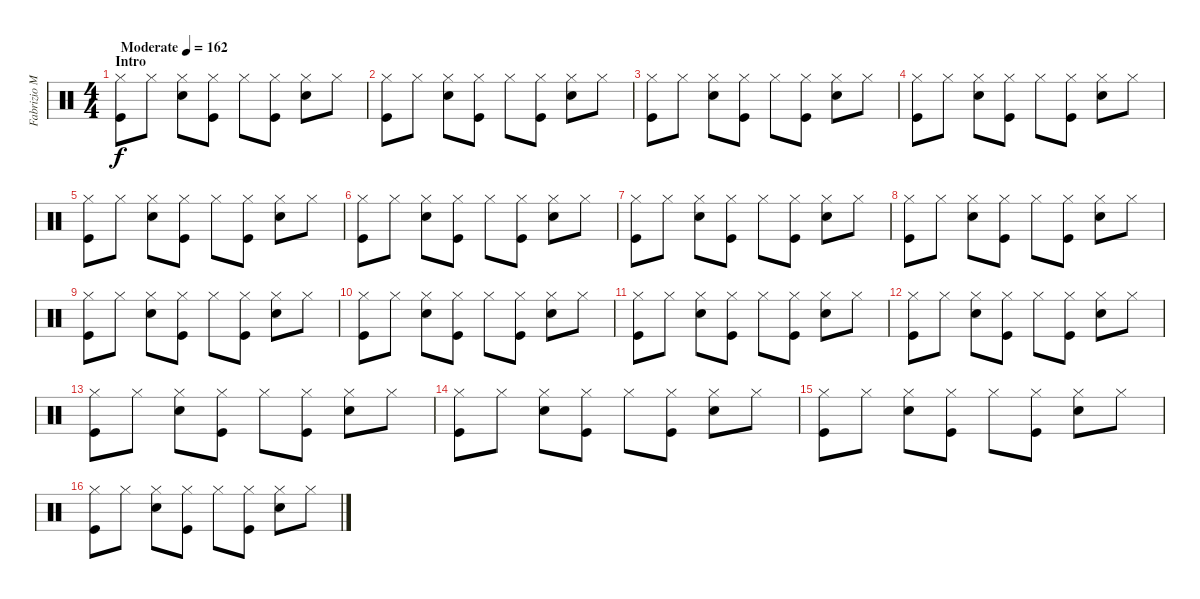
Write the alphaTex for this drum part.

\track ("Fabrizio Moretti" "Fabrizio M") {instrument percussion}
\staff {score}
\articulation defaults
\ts (4 4)
\section ("" "Intro")
\tempo (162 "Moderate")
\clef neutral
\ks c
("Hi-Hat (closed)" "Kick (hit)").8{dy f} "Hi-Hat (closed)".8 ("Hi-Hat (closed)" "Snare (hit) 2").8 ("Hi-Hat (closed)" "Kick (hit)").8 "Hi-Hat (closed)".8 ("Hi-Hat (closed)" "Kick (hit)").8 ("Hi-Hat (closed)" "Snare (hit) 2").8 "Hi-Hat (closed)".8 |
("Hi-Hat (closed)" "Kick (hit)").8 "Hi-Hat (closed)".8 ("Hi-Hat (closed)" "Snare (hit) 2").8 ("Hi-Hat (closed)" "Kick (hit)").8 "Hi-Hat (closed)".8 ("Hi-Hat (closed)" "Kick (hit)").8 ("Hi-Hat (closed)" "Snare (hit) 2").8 "Hi-Hat (closed)".8 |
("Hi-Hat (closed)" "Kick (hit)").8 "Hi-Hat (closed)".8 ("Hi-Hat (closed)" "Snare (hit) 2").8 ("Hi-Hat (closed)" "Kick (hit)").8 "Hi-Hat (closed)".8 ("Hi-Hat (closed)" "Kick (hit)").8 ("Hi-Hat (closed)" "Snare (hit) 2").8 "Hi-Hat (closed)".8 |
("Hi-Hat (closed)" "Kick (hit)").8 "Hi-Hat (closed)".8 ("Hi-Hat (closed)" "Snare (hit) 2").8 ("Hi-Hat (closed)" "Kick (hit)").8 "Hi-Hat (closed)".8 ("Hi-Hat (closed)" "Kick (hit)").8 ("Hi-Hat (closed)" "Snare (hit) 2").8 "Hi-Hat (closed)".8 |
("Hi-Hat (closed)" "Kick (hit)").8 "Hi-Hat (closed)".8 ("Hi-Hat (closed)" "Snare (hit) 2").8 ("Hi-Hat (closed)" "Kick (hit)").8 "Hi-Hat (closed)".8 ("Hi-Hat (closed)" "Kick (hit)").8 ("Hi-Hat (closed)" "Snare (hit) 2").8 "Hi-Hat (closed)".8 |
("Hi-Hat (closed)" "Kick (hit)").8 "Hi-Hat (closed)".8 ("Hi-Hat (closed)" "Snare (hit) 2").8 ("Hi-Hat (closed)" "Kick (hit)").8 "Hi-Hat (closed)".8 ("Hi-Hat (closed)" "Kick (hit)").8 ("Hi-Hat (closed)" "Snare (hit) 2").8 "Hi-Hat (closed)".8 |
("Hi-Hat (closed)" "Kick (hit)").8 "Hi-Hat (closed)".8 ("Hi-Hat (closed)" "Snare (hit) 2").8 ("Hi-Hat (closed)" "Kick (hit)").8 "Hi-Hat (closed)".8 ("Hi-Hat (closed)" "Kick (hit)").8 ("Hi-Hat (closed)" "Snare (hit) 2").8 "Hi-Hat (closed)".8 |
("Hi-Hat (closed)" "Kick (hit)").8 "Hi-Hat (closed)".8 ("Hi-Hat (closed)" "Snare (hit) 2").8 ("Hi-Hat (closed)" "Kick (hit)").8 "Hi-Hat (closed)".8 ("Hi-Hat (closed)" "Kick (hit)").8 ("Hi-Hat (closed)" "Snare (hit) 2").8 "Hi-Hat (closed)".8 |
("Hi-Hat (closed)" "Kick (hit)").8 "Hi-Hat (closed)".8 ("Hi-Hat (closed)" "Snare (hit) 2").8 ("Hi-Hat (closed)" "Kick (hit)").8 "Hi-Hat (closed)".8 ("Hi-Hat (closed)" "Kick (hit)").8 ("Hi-Hat (closed)" "Snare (hit) 2").8 "Hi-Hat (closed)".8 |
("Hi-Hat (closed)" "Kick (hit)").8 "Hi-Hat (closed)".8 ("Hi-Hat (closed)" "Snare (hit) 2").8 ("Hi-Hat (closed)" "Kick (hit)").8 "Hi-Hat (closed)".8 ("Hi-Hat (closed)" "Kick (hit)").8 ("Hi-Hat (closed)" "Snare (hit) 2").8 "Hi-Hat (closed)".8 |
("Hi-Hat (closed)" "Kick (hit)").8 "Hi-Hat (closed)".8 ("Hi-Hat (closed)" "Snare (hit) 2").8 ("Hi-Hat (closed)" "Kick (hit)").8 "Hi-Hat (closed)".8 ("Hi-Hat (closed)" "Kick (hit)").8 ("Hi-Hat (closed)" "Snare (hit) 2").8 "Hi-Hat (closed)".8 |
("Hi-Hat (closed)" "Kick (hit)").8 "Hi-Hat (closed)".8 ("Hi-Hat (closed)" "Snare (hit) 2").8 ("Hi-Hat (closed)" "Kick (hit)").8 "Hi-Hat (closed)".8 ("Hi-Hat (closed)" "Kick (hit)").8 ("Hi-Hat (closed)" "Snare (hit) 2").8 "Hi-Hat (closed)".8 |
("Hi-Hat (closed)" "Kick (hit)").8 "Hi-Hat (closed)".8 ("Hi-Hat (closed)" "Snare (hit) 2").8 ("Hi-Hat (closed)" "Kick (hit)").8 "Hi-Hat (closed)".8 ("Hi-Hat (closed)" "Kick (hit)").8 ("Hi-Hat (closed)" "Snare (hit) 2").8 "Hi-Hat (closed)".8 |
("Hi-Hat (closed)" "Kick (hit)").8 "Hi-Hat (closed)".8 ("Hi-Hat (closed)" "Snare (hit) 2").8 ("Hi-Hat (closed)" "Kick (hit)").8 "Hi-Hat (closed)".8 ("Hi-Hat (closed)" "Kick (hit)").8 ("Hi-Hat (closed)" "Snare (hit) 2").8 "Hi-Hat (closed)".8 |
("Hi-Hat (closed)" "Kick (hit)").8 "Hi-Hat (closed)".8 ("Hi-Hat (closed)" "Snare (hit) 2").8 ("Hi-Hat (closed)" "Kick (hit)").8 "Hi-Hat (closed)".8 ("Hi-Hat (closed)" "Kick (hit)").8 ("Hi-Hat (closed)" "Snare (hit) 2").8 "Hi-Hat (closed)".8 |
("Hi-Hat (closed)" "Kick (hit)").8 "Hi-Hat (closed)".8 ("Hi-Hat (closed)" "Snare (hit) 2").8 ("Hi-Hat (closed)" "Kick (hit)").8 "Hi-Hat (closed)".8 ("Hi-Hat (closed)" "Kick (hit)").8 ("Hi-Hat (closed)" "Snare (hit) 2").8 "Hi-Hat (closed)".8
